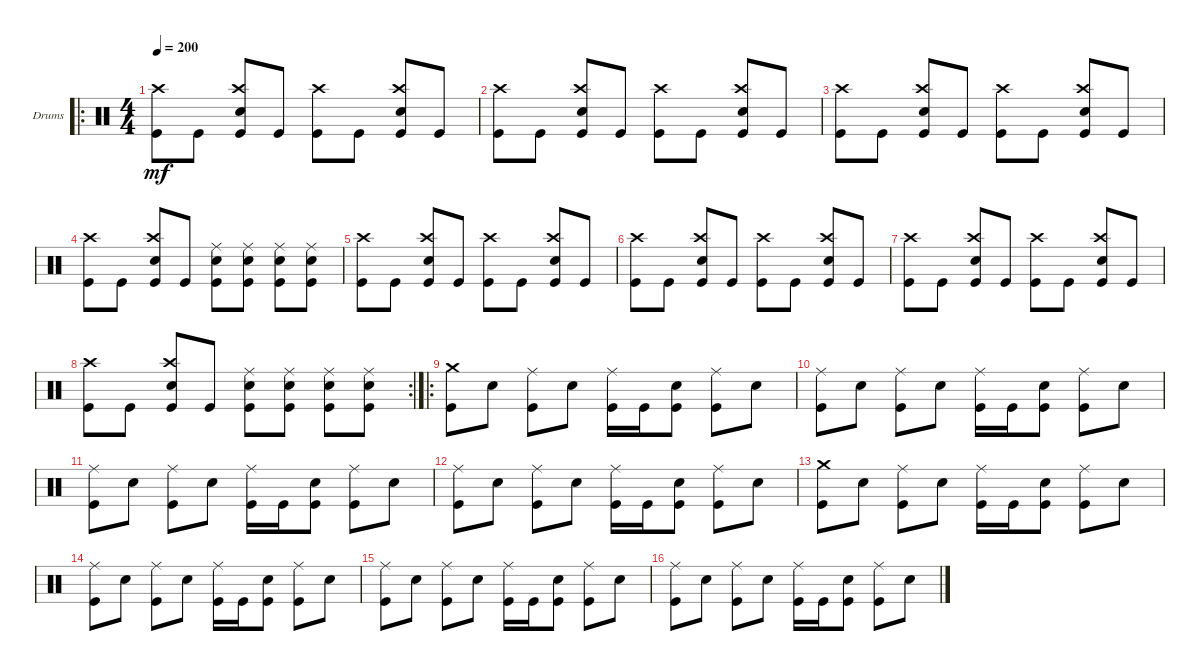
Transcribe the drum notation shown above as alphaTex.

\bracketExtendMode groupsimilarinstruments
\firstSystemTrackNameOrientation horizontal
\otherSystemsTrackNameOrientation horizontal
\track ("Drumkit" "Drums") {instrument percussion}
\staff {score}
\articulation defaults
\ro
\ts (4 4)
\tempo 200
\clef neutral
\ks c
("Kick (hit)" "Crash high (hit)").8{dy mf} "Kick (hit)".8 ("Kick (hit)" "Snare (hit) 2" "Crash high (hit)").8 "Kick (hit)".8 ("Kick (hit)" "Crash high (hit)").8 "Kick (hit)".8 ("Kick (hit)" "Snare (hit) 2" "Crash high (hit)").8 "Kick (hit)".8 |
("Kick (hit)" "Crash high (hit)").8 "Kick (hit)".8 ("Kick (hit)" "Snare (hit) 2" "Crash high (hit)").8 "Kick (hit)".8 ("Kick (hit)" "Crash high (hit)").8 "Kick (hit)".8 ("Kick (hit)" "Snare (hit) 2" "Crash high (hit)").8 "Kick (hit)".8 |
("Kick (hit)" "Crash high (hit)").8 "Kick (hit)".8 ("Kick (hit)" "Snare (hit) 2" "Crash high (hit)").8 "Kick (hit)".8 ("Kick (hit)" "Crash high (hit)").8 "Kick (hit)".8 ("Kick (hit)" "Snare (hit) 2" "Crash high (hit)").8 "Kick (hit)".8 |
("Kick (hit)" "Crash high (hit)").8 "Kick (hit)".8 ("Kick (hit)" "Snare (hit) 2" "Crash high (hit)").8 "Kick (hit)".8 ("Kick (hit)" "Snare (hit) 2" "Ride (middle)").8 ("Kick (hit)" "Snare (hit) 2" "Ride (middle)").8 ("Kick (hit)" "Snare (hit) 2" "Ride (middle)").8 ("Kick (hit)" "Snare (hit) 2" "Ride (middle)").8 |
("Kick (hit)" "Crash high (hit)").8 "Kick (hit)".8 ("Kick (hit)" "Snare (hit) 2" "Crash high (hit)").8 "Kick (hit)".8 ("Kick (hit)" "Crash high (hit)").8 "Kick (hit)".8 ("Kick (hit)" "Snare (hit) 2" "Crash high (hit)").8 "Kick (hit)".8 |
("Kick (hit)" "Crash high (hit)").8 "Kick (hit)".8 ("Kick (hit)" "Snare (hit) 2" "Crash high (hit)").8 "Kick (hit)".8 ("Kick (hit)" "Crash high (hit)").8 "Kick (hit)".8 ("Kick (hit)" "Snare (hit) 2" "Crash high (hit)").8 "Kick (hit)".8 |
("Kick (hit)" "Crash high (hit)").8 "Kick (hit)".8 ("Kick (hit)" "Snare (hit) 2" "Crash high (hit)").8 "Kick (hit)".8 ("Kick (hit)" "Crash high (hit)").8 "Kick (hit)".8 ("Kick (hit)" "Snare (hit) 2" "Crash high (hit)").8 "Kick (hit)".8 |
\rc 2
("Kick (hit)" "Crash high (hit)").8 "Kick (hit)".8 ("Kick (hit)" "Snare (hit) 2" "Crash high (hit)").8 "Kick (hit)".8 ("Kick (hit)" "Snare (hit) 2" "Ride (middle)").8 ("Kick (hit)" "Snare (hit) 2" "Ride (middle)").8 ("Kick (hit)" "Snare (hit) 2" "Ride (middle)").8 ("Kick (hit)" "Snare (hit) 2" "Ride (middle)").8 |
\ro
("Kick (hit)" "Crash medium (hit)").8 "Snare (hit) 2".8 ("Kick (hit)" "Ride (middle)").8 "Snare (hit) 2".8 ("Kick (hit)" "Ride (middle)").16 "Kick (hit)".16 ("Snare (hit) 2" "Kick (hit)").8 ("Kick (hit)" "Ride (middle)").8 "Snare (hit) 2".8 |
("Kick (hit)" "Ride (middle)").8 "Snare (hit) 2".8 ("Kick (hit)" "Ride (middle)").8 "Snare (hit) 2".8 ("Kick (hit)" "Ride (middle)").16 "Kick (hit)".16 ("Snare (hit) 2" "Kick (hit)").8 ("Kick (hit)" "Ride (middle)").8 "Snare (hit) 2".8 |
("Kick (hit)" "Ride (middle)").8 "Snare (hit) 2".8 ("Kick (hit)" "Ride (middle)").8 "Snare (hit) 2".8 ("Kick (hit)" "Ride (middle)").16 "Kick (hit)".16 ("Snare (hit) 2" "Kick (hit)").8 ("Kick (hit)" "Ride (middle)").8 "Snare (hit) 2".8 |
("Kick (hit)" "Ride (middle)").8 "Snare (hit) 2".8 ("Kick (hit)" "Ride (middle)").8 "Snare (hit) 2".8 ("Kick (hit)" "Ride (middle)").16 "Kick (hit)".16 ("Snare (hit) 2" "Kick (hit)").8 ("Kick (hit)" "Ride (middle)").8 "Snare (hit) 2".8 |
("Kick (hit)" "Crash medium (hit)").8 "Snare (hit) 2".8 ("Kick (hit)" "Ride (middle)").8 "Snare (hit) 2".8 ("Kick (hit)" "Ride (middle)").16 "Kick (hit)".16 ("Snare (hit) 2" "Kick (hit)").8 ("Kick (hit)" "Ride (middle)").8 "Snare (hit) 2".8 |
("Kick (hit)" "Ride (middle)").8 "Snare (hit) 2".8 ("Kick (hit)" "Ride (middle)").8 "Snare (hit) 2".8 ("Kick (hit)" "Ride (middle)").16 "Kick (hit)".16 ("Snare (hit) 2" "Kick (hit)").8 ("Kick (hit)" "Ride (middle)").8 "Snare (hit) 2".8 |
("Kick (hit)" "Ride (middle)").8 "Snare (hit) 2".8 ("Kick (hit)" "Ride (middle)").8 "Snare (hit) 2".8 ("Kick (hit)" "Ride (middle)").16 "Kick (hit)".16 ("Snare (hit) 2" "Kick (hit)").8 ("Kick (hit)" "Ride (middle)").8 "Snare (hit) 2".8 |
("Kick (hit)" "Ride (middle)").8 "Snare (hit) 2".8 ("Kick (hit)" "Ride (middle)").8 "Snare (hit) 2".8 ("Kick (hit)" "Ride (middle)").16 "Kick (hit)".16 ("Snare (hit) 2" "Kick (hit)").8 ("Kick (hit)" "Ride (middle)").8 "Snare (hit) 2".8
